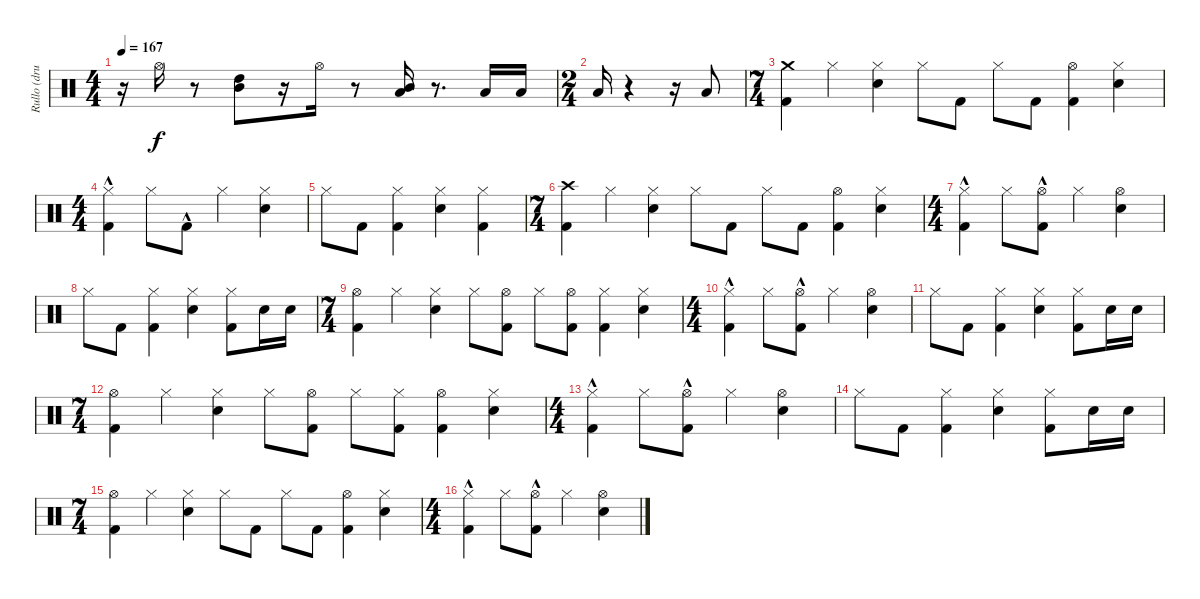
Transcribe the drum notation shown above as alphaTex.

\track ("Rullo (drums)" "Rullo (dru") {instrument percussion}
\staff {score}
\articulation defaults
\ts (4 4)
\tempo 167
\clef neutral
\ks c
r.16{dy f} "Hi-Hat (open)".16 r.8 ("Mid Tom (hit)" "High Tom (hit)").8 r.16 "Hi-Hat (open)".16 r.8 ("Low Tom (hit)" "Mid Tom (hit)").16 r.8{d} "Low Tom (hit)".16 "Low Tom (hit)".16 |
\ts (2 4)
"Low Tom (hit)".16 r.4 r.16 "Low Tom (hit)".8 |
\ts (7 4)
("Crash medium (hit)" "Kick (hit) 2").4 "Hi-Hat (closed)".4 ("Hi-Hat (closed)" "Electric Snare (hit)").4 "Hi-Hat (closed)".8 "Kick (hit) 2".8 "Hi-Hat (closed)".8 "Kick (hit) 2".8 ("Hi-Hat (open)" "Kick (hit) 2").4 ("Hi-Hat (closed)" "Electric Snare (hit)").4 |
\ts (4 4)
("Hi-Hat (closed)" "Kick (hit) 2"{hac}).4 "Hi-Hat (closed)".8 "Kick (hit) 2"{hac}.8 "Hi-Hat (closed)".4 ("Hi-Hat (closed)" "Electric Snare (hit)").4 |
"Hi-Hat (closed)".8 "Kick (hit) 2".8 ("Hi-Hat (closed)" "Kick (hit) 2").4 ("Hi-Hat (closed)" "Electric Snare (hit)").4 ("Hi-Hat (closed)" "Kick (hit) 2").4 |
\ts (7 4)
("Crash high (hit)" "Kick (hit) 2").4 "Hi-Hat (closed)".4 ("Hi-Hat (closed)" "Electric Snare (hit)").4 "Hi-Hat (closed)".8 "Kick (hit) 2".8 "Hi-Hat (closed)".8 "Kick (hit) 2".8 ("Hi-Hat (open)" "Kick (hit) 2").4 ("Hi-Hat (closed)" "Electric Snare (hit)").4 |
\ts (4 4)
("Hi-Hat (closed)" "Kick (hit) 2"{hac}).4 "Hi-Hat (closed)".8 ("Hi-Hat (open)" "Kick (hit) 2"{hac}).8 "Hi-Hat (closed)".4 ("Hi-Hat (open)" "Electric Snare (hit)").4 |
"Hi-Hat (closed)".8 "Kick (hit) 2".8 ("Hi-Hat (closed)" "Kick (hit) 2").4 ("Hi-Hat (closed)" "Electric Snare (hit)").4 ("Hi-Hat (closed)" "Kick (hit) 2").8 "Electric Snare (hit)".16 "Electric Snare (hit)".16 |
\ts (7 4)
("Hi-Hat (open)" "Kick (hit) 2").4 "Hi-Hat (closed)".4 ("Hi-Hat (closed)" "Electric Snare (hit)").4 "Hi-Hat (closed)".8 ("Hi-Hat (open)" "Kick (hit) 2").8 "Hi-Hat (closed)".8 ("Hi-Hat (open)" "Kick (hit) 2").8 ("Hi-Hat (closed)" "Kick (hit) 2").4 ("Hi-Hat (closed)" "Electric Snare (hit)").4 |
\ts (4 4)
("Hi-Hat (closed)" "Kick (hit) 2"{hac}).4 "Hi-Hat (closed)".8 ("Hi-Hat (open)" "Kick (hit) 2"{hac}).8 "Hi-Hat (closed)".4 ("Hi-Hat (open)" "Electric Snare (hit)").4 |
"Hi-Hat (closed)".8 "Kick (hit) 2".8 ("Hi-Hat (closed)" "Kick (hit) 2").4 ("Hi-Hat (closed)" "Electric Snare (hit)").4 ("Hi-Hat (closed)" "Kick (hit) 2").8 "Electric Snare (hit)".16 "Electric Snare (hit)".16 |
\ts (7 4)
("Hi-Hat (open)" "Kick (hit) 2").4 "Hi-Hat (closed)".4 ("Hi-Hat (closed)" "Electric Snare (hit)").4 "Hi-Hat (closed)".8 ("Hi-Hat (open)" "Kick (hit) 2").8 "Hi-Hat (closed)".8 ("Hi-Hat (closed)" "Kick (hit) 2").8 ("Hi-Hat (open)" "Kick (hit) 2").4 ("Hi-Hat (closed)" "Electric Snare (hit)").4 |
\ts (4 4)
("Hi-Hat (closed)" "Kick (hit) 2"{hac}).4 "Hi-Hat (closed)".8 ("Hi-Hat (open)" "Kick (hit) 2"{hac}).8 "Hi-Hat (closed)".4 ("Hi-Hat (open)" "Electric Snare (hit)").4 |
"Hi-Hat (closed)".8 "Kick (hit) 2".8 ("Hi-Hat (closed)" "Kick (hit) 2").4 ("Hi-Hat (closed)" "Electric Snare (hit)").4 ("Hi-Hat (closed)" "Kick (hit) 2").8 "Electric Snare (hit)".16 "Electric Snare (hit)".16 |
\ts (7 4)
("Hi-Hat (open)" "Kick (hit) 2").4 "Hi-Hat (closed)".4 ("Hi-Hat (closed)" "Electric Snare (hit)").4 "Hi-Hat (closed)".8 "Kick (hit) 2".8 "Hi-Hat (closed)".8 "Kick (hit) 2".8 ("Hi-Hat (open)" "Kick (hit) 2").4 ("Hi-Hat (closed)" "Electric Snare (hit)").4 |
\ts (4 4)
("Hi-Hat (closed)" "Kick (hit) 2"{hac}).4 "Hi-Hat (closed)".8 ("Hi-Hat (open)" "Kick (hit) 2"{hac}).8 "Hi-Hat (closed)".4 ("Hi-Hat (open)" "Electric Snare (hit)").4
